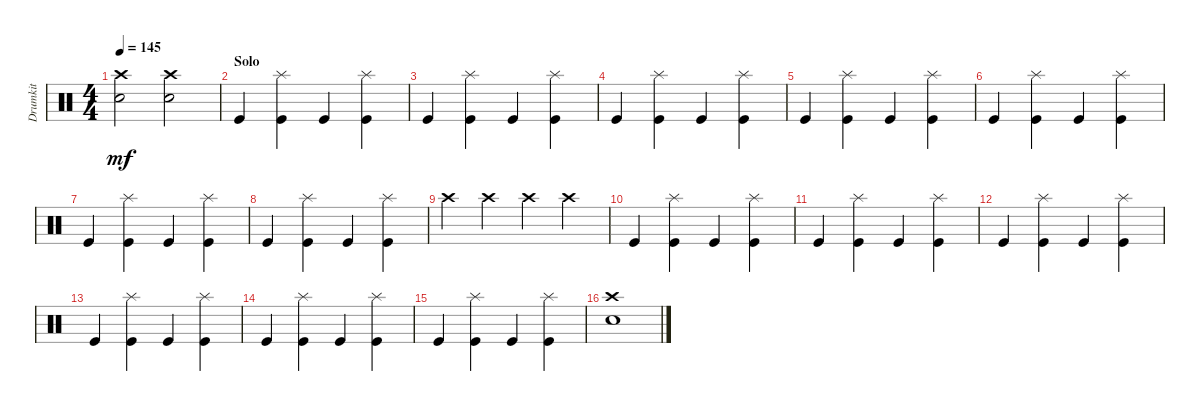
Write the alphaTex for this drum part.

\track ("Drumkit" "Drumkit") {instrument percussion}
\staff {score}
\articulation defaults
\ts (4 4)
\tempo 145
\clef neutral
\ks c
("Crash high (hit)" "Electric Snare (hit)").2{dy mf} ("Crash high (hit)" "Electric Snare (hit)").2 |
\section ("" "Solo")
"Kick (hit)".4 ("Kick (hit)" "Splash (hit)").4 "Kick (hit)".4 ("Kick (hit)" "Splash (hit)").4 |
"Kick (hit)".4 ("Kick (hit)" "Splash (hit)").4 "Kick (hit)".4 ("Kick (hit)" "Splash (hit)").4 |
"Kick (hit)".4 ("Kick (hit)" "Splash (hit)").4 "Kick (hit)".4 ("Kick (hit)" "Splash (hit)").4 |
"Kick (hit)".4 ("Kick (hit)" "Splash (hit)").4 "Kick (hit)".4 ("Kick (hit)" "Splash (hit)").4 |
"Kick (hit)".4 ("Kick (hit)" "Splash (hit)").4 "Kick (hit)".4 ("Kick (hit)" "Splash (hit)").4 |
"Kick (hit)".4 ("Kick (hit)" "Splash (hit)").4 "Kick (hit)".4 ("Kick (hit)" "Splash (hit)").4 |
"Kick (hit)".4 ("Kick (hit)" "Splash (hit)").4 "Kick (hit)".4 ("Kick (hit)" "Splash (hit)").4 |
"Crash high (hit)".4 "Crash high (hit)".4 "Crash high (hit)".4 "Crash high (hit)".4 |
"Kick (hit)".4 ("Kick (hit)" "Splash (hit)").4 "Kick (hit)".4 ("Kick (hit)" "Splash (hit)").4 |
"Kick (hit)".4 ("Kick (hit)" "Splash (hit)").4 "Kick (hit)".4 ("Kick (hit)" "Splash (hit)").4 |
"Kick (hit)".4 ("Kick (hit)" "Splash (hit)").4 "Kick (hit)".4 ("Kick (hit)" "Splash (hit)").4 |
"Kick (hit)".4 ("Kick (hit)" "Splash (hit)").4 "Kick (hit)".4 ("Kick (hit)" "Splash (hit)").4 |
"Kick (hit)".4 ("Kick (hit)" "Splash (hit)").4 "Kick (hit)".4 ("Kick (hit)" "Splash (hit)").4 |
"Kick (hit)".4 ("Kick (hit)" "Splash (hit)").4 "Kick (hit)".4 ("Kick (hit)" "Splash (hit)").4 |
("Crash high (hit)" "Electric Snare (hit)").1
